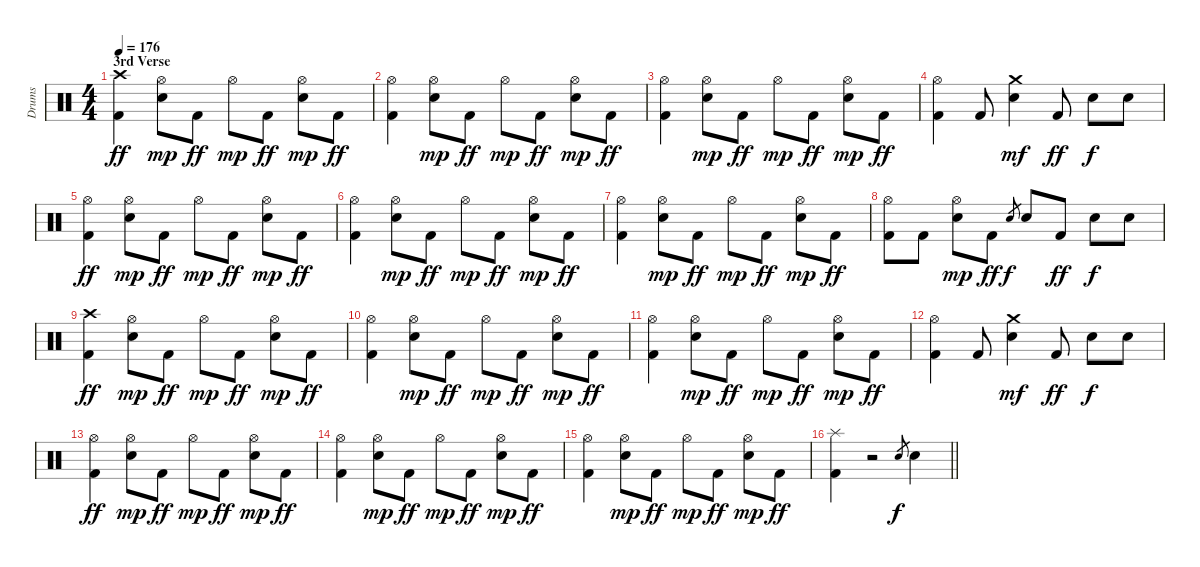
\track ("Drums" "Drums") {instrument percussion}
\staff {score}
\articulation defaults
\ts (4 4)
\section ("" "3rd Verse")
\tempo 176
\clef neutral
\ks c
("Crash high (hit)" "Kick (hit) 2").4{dy ff} ("Hi-Hat (open)" "Electric Snare (hit)").8{dy mp} "Kick (hit) 2".8{dy ff} "Hi-Hat (open)".8{dy mp} "Kick (hit) 2".8{dy ff} ("Hi-Hat (open)" "Electric Snare (hit)").8{dy mp} "Kick (hit) 2".8{dy ff} |
("Hi-Hat (open)" "Kick (hit) 2").4 ("Hi-Hat (open)" "Electric Snare (hit)").8{dy mp} "Kick (hit) 2".8{dy ff} "Hi-Hat (open)".8{dy mp} "Kick (hit) 2".8{dy ff} ("Hi-Hat (open)" "Electric Snare (hit)").8{dy mp} "Kick (hit) 2".8{dy ff} |
("Hi-Hat (open)" "Kick (hit) 2").4 ("Hi-Hat (open)" "Electric Snare (hit)").8{dy mp} "Kick (hit) 2".8{dy ff} "Hi-Hat (open)".8{dy mp} "Kick (hit) 2".8{dy ff} ("Hi-Hat (open)" "Electric Snare (hit)").8{dy mp} "Kick (hit) 2".8{dy ff} |
("Hi-Hat (open)" "Kick (hit) 2").4 "Kick (hit) 2".8 ("Crash medium (hit)" "Electric Snare (hit)").4{dy mf} "Kick (hit) 2".8{dy ff} "Electric Snare (hit)".8{dy f} "Electric Snare (hit)".8 |
("Hi-Hat (open)" "Kick (hit) 2").4{dy ff} ("Hi-Hat (open)" "Electric Snare (hit)").8{dy mp} "Kick (hit) 2".8{dy ff} "Hi-Hat (open)".8{dy mp} "Kick (hit) 2".8{dy ff} ("Hi-Hat (open)" "Electric Snare (hit)").8{dy mp} "Kick (hit) 2".8{dy ff} |
("Hi-Hat (open)" "Kick (hit) 2").4 ("Hi-Hat (open)" "Electric Snare (hit)").8{dy mp} "Kick (hit) 2".8{dy ff} "Hi-Hat (open)".8{dy mp} "Kick (hit) 2".8{dy ff} ("Hi-Hat (open)" "Electric Snare (hit)").8{dy mp} "Kick (hit) 2".8{dy ff} |
("Hi-Hat (open)" "Kick (hit) 2").4 ("Hi-Hat (open)" "Electric Snare (hit)").8{dy mp} "Kick (hit) 2".8{dy ff} "Hi-Hat (open)".8{dy mp} "Kick (hit) 2".8{dy ff} ("Hi-Hat (open)" "Electric Snare (hit)").8{dy mp} "Kick (hit) 2".8{dy ff} |
("Hi-Hat (open)" "Kick (hit) 2").8 "Kick (hit) 2".8 ("Hi-Hat (open)" "Electric Snare (hit)").8{dy mp} "Kick (hit) 2".8{dy ff} "Electric Snare (hit)".8{gr dy f} "Electric Snare (hit)".8 "Kick (hit) 2".8{dy ff} "Electric Snare (hit)".8{dy f} "Electric Snare (hit)".8 |
("Crash high (hit)" "Kick (hit) 2").4{dy ff} ("Hi-Hat (open)" "Electric Snare (hit)").8{dy mp} "Kick (hit) 2".8{dy ff} "Hi-Hat (open)".8{dy mp} "Kick (hit) 2".8{dy ff} ("Hi-Hat (open)" "Electric Snare (hit)").8{dy mp} "Kick (hit) 2".8{dy ff} |
("Hi-Hat (open)" "Kick (hit) 2").4 ("Hi-Hat (open)" "Electric Snare (hit)").8{dy mp} "Kick (hit) 2".8{dy ff} "Hi-Hat (open)".8{dy mp} "Kick (hit) 2".8{dy ff} ("Hi-Hat (open)" "Electric Snare (hit)").8{dy mp} "Kick (hit) 2".8{dy ff} |
("Hi-Hat (open)" "Kick (hit) 2").4 ("Hi-Hat (open)" "Electric Snare (hit)").8{dy mp} "Kick (hit) 2".8{dy ff} "Hi-Hat (open)".8{dy mp} "Kick (hit) 2".8{dy ff} ("Hi-Hat (open)" "Electric Snare (hit)").8{dy mp} "Kick (hit) 2".8{dy ff} |
("Hi-Hat (open)" "Kick (hit) 2").4 "Kick (hit) 2".8 ("Crash medium (hit)" "Electric Snare (hit)").4{dy mf} "Kick (hit) 2".8{dy ff} "Electric Snare (hit)".8{dy f} "Electric Snare (hit)".8 |
("Hi-Hat (open)" "Kick (hit) 2").4{dy ff} ("Hi-Hat (open)" "Electric Snare (hit)").8{dy mp} "Kick (hit) 2".8{dy ff} "Hi-Hat (open)".8{dy mp} "Kick (hit) 2".8{dy ff} ("Hi-Hat (open)" "Electric Snare (hit)").8{dy mp} "Kick (hit) 2".8{dy ff} |
("Hi-Hat (open)" "Kick (hit) 2").4 ("Hi-Hat (open)" "Electric Snare (hit)").8{dy mp} "Kick (hit) 2".8{dy ff} "Hi-Hat (open)".8{dy mp} "Kick (hit) 2".8{dy ff} ("Hi-Hat (open)" "Electric Snare (hit)").8{dy mp} "Kick (hit) 2".8{dy ff} |
("Hi-Hat (open)" "Kick (hit) 2").4 ("Hi-Hat (open)" "Electric Snare (hit)").8{dy mp} "Kick (hit) 2".8{dy ff} "Hi-Hat (open)".8{dy mp} "Kick (hit) 2".8{dy ff} ("Hi-Hat (open)" "Electric Snare (hit)").8{dy mp} "Kick (hit) 2".8{dy ff} |
\barLineRight lightlight
("Splash (hit)" "Kick (hit) 2").4 r.2 "Electric Snare (hit)".8{gr dy f} "Electric Snare (hit)".4
